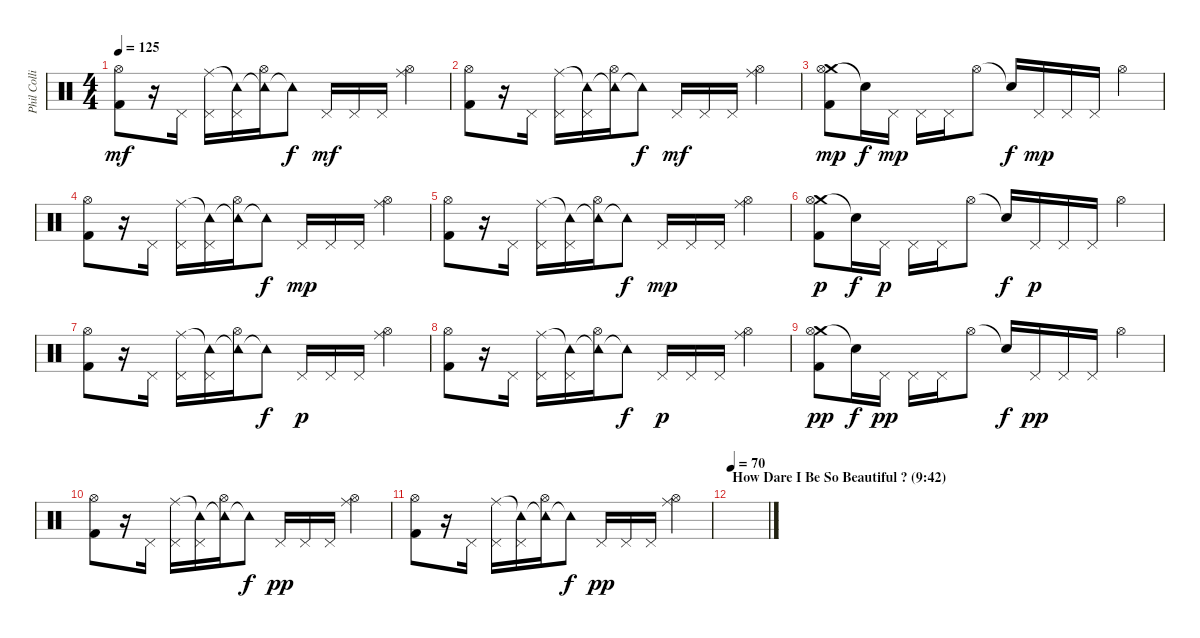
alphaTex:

\track ("Phil Collins (drums)" "Phil Colli") {instrument percussion}
\staff {score}
\articulation defaults
\ts (4 4)
\tempo 125
\clef neutral
\ks c
("Hi-Hat (open)" "Kick (hit) 2").8{dy mf} r.16 "Pedal Hi-Hat (hit)".16 ("Ride (middle)" "Pedal Hi-Hat (hit)").16 ("Tambourine (hit)"{t} "Pedal Hi-Hat (hit)").16 ("Tambourine (hit)"{t} "Hi-Hat (open)").16 "Tambourine (hit)"{t}.8{dy f} "Pedal Hi-Hat (hit)".16{dy mf} "Pedal Hi-Hat (hit)".16 "Pedal Hi-Hat (hit)".16 ("Ride (middle)" "Hi-Hat (open)").4 |
("Hi-Hat (open)" "Kick (hit) 2").8 r.16 "Pedal Hi-Hat (hit)".16 ("Ride (middle)" "Pedal Hi-Hat (hit)").16 ("Tambourine (hit)"{t} "Pedal Hi-Hat (hit)").16 ("Tambourine (hit)"{t} "Hi-Hat (open)").16 "Tambourine (hit)"{t}.8{dy f} "Pedal Hi-Hat (hit)".16{dy mf} "Pedal Hi-Hat (hit)".16 "Pedal Hi-Hat (hit)".16 ("Ride (middle)" "Hi-Hat (open)").4 |
("Crash medium (hit)" "Hi-Hat (open)" "Kick (hit) 2").8{dy mp} "Snare (hit)"{t}.16{dy f} "Pedal Hi-Hat (hit)".16{dy mp} "Pedal Hi-Hat (hit)".16 "Pedal Hi-Hat (hit)".16 "Hi-Hat (open)".8 "Snare (hit)"{t}.16{dy f} "Pedal Hi-Hat (hit)".16{dy mp} "Pedal Hi-Hat (hit)".16 "Pedal Hi-Hat (hit)".16 "Hi-Hat (open)".4 |
("Hi-Hat (open)" "Kick (hit) 2").8 r.16 "Pedal Hi-Hat (hit)".16 ("Ride (middle)" "Pedal Hi-Hat (hit)").16 ("Tambourine (hit)"{t} "Pedal Hi-Hat (hit)").16 ("Tambourine (hit)"{t} "Hi-Hat (open)").16 "Tambourine (hit)"{t}.8{dy f} "Pedal Hi-Hat (hit)".16{dy mp} "Pedal Hi-Hat (hit)".16 "Pedal Hi-Hat (hit)".16 ("Ride (middle)" "Hi-Hat (open)").4 |
("Hi-Hat (open)" "Kick (hit) 2").8 r.16 "Pedal Hi-Hat (hit)".16 ("Ride (middle)" "Pedal Hi-Hat (hit)").16 ("Tambourine (hit)"{t} "Pedal Hi-Hat (hit)").16 ("Tambourine (hit)"{t} "Hi-Hat (open)").16 "Tambourine (hit)"{t}.8{dy f} "Pedal Hi-Hat (hit)".16{dy mp} "Pedal Hi-Hat (hit)".16 "Pedal Hi-Hat (hit)".16 ("Ride (middle)" "Hi-Hat (open)").4 |
("Crash medium (hit)" "Hi-Hat (open)" "Kick (hit) 2").8{dy p} "Snare (hit)"{t}.16{dy f} "Pedal Hi-Hat (hit)".16{dy p} "Pedal Hi-Hat (hit)".16 "Pedal Hi-Hat (hit)".16 "Hi-Hat (open)".8 "Snare (hit)"{t}.16{dy f} "Pedal Hi-Hat (hit)".16{dy p} "Pedal Hi-Hat (hit)".16 "Pedal Hi-Hat (hit)".16 "Hi-Hat (open)".4 |
("Hi-Hat (open)" "Kick (hit) 2").8 r.16 "Pedal Hi-Hat (hit)".16 ("Ride (middle)" "Pedal Hi-Hat (hit)").16 ("Tambourine (hit)"{t} "Pedal Hi-Hat (hit)").16 ("Tambourine (hit)"{t} "Hi-Hat (open)").16 "Tambourine (hit)"{t}.8{dy f} "Pedal Hi-Hat (hit)".16{dy p} "Pedal Hi-Hat (hit)".16 "Pedal Hi-Hat (hit)".16 ("Ride (middle)" "Hi-Hat (open)").4 |
("Hi-Hat (open)" "Kick (hit) 2").8 r.16 "Pedal Hi-Hat (hit)".16 ("Ride (middle)" "Pedal Hi-Hat (hit)").16 ("Tambourine (hit)"{t} "Pedal Hi-Hat (hit)").16 ("Tambourine (hit)"{t} "Hi-Hat (open)").16 "Tambourine (hit)"{t}.8{dy f} "Pedal Hi-Hat (hit)".16{dy p} "Pedal Hi-Hat (hit)".16 "Pedal Hi-Hat (hit)".16 ("Ride (middle)" "Hi-Hat (open)").4 |
("Crash medium (hit)" "Hi-Hat (open)" "Kick (hit) 2").8{dy pp} "Snare (hit)"{t}.16{dy f} "Pedal Hi-Hat (hit)".16{dy pp} "Pedal Hi-Hat (hit)".16 "Pedal Hi-Hat (hit)".16 "Hi-Hat (open)".8 "Snare (hit)"{t}.16{dy f} "Pedal Hi-Hat (hit)".16{dy pp} "Pedal Hi-Hat (hit)".16 "Pedal Hi-Hat (hit)".16 "Hi-Hat (open)".4 |
("Hi-Hat (open)" "Kick (hit) 2").8 r.16 "Pedal Hi-Hat (hit)".16 ("Ride (middle)" "Pedal Hi-Hat (hit)").16 ("Tambourine (hit)"{t} "Pedal Hi-Hat (hit)").16 ("Tambourine (hit)"{t} "Hi-Hat (open)").16 "Tambourine (hit)"{t}.8{dy f} "Pedal Hi-Hat (hit)".16{dy pp} "Pedal Hi-Hat (hit)".16 "Pedal Hi-Hat (hit)".16 ("Ride (middle)" "Hi-Hat (open)").4 |
("Hi-Hat (open)" "Kick (hit) 2").8 r.16 "Pedal Hi-Hat (hit)".16 ("Ride (middle)" "Pedal Hi-Hat (hit)").16 ("Tambourine (hit)"{t} "Pedal Hi-Hat (hit)").16 ("Tambourine (hit)"{t} "Hi-Hat (open)").16 "Tambourine (hit)"{t}.8{dy f} "Pedal Hi-Hat (hit)".16{dy pp} "Pedal Hi-Hat (hit)".16 "Pedal Hi-Hat (hit)".16 ("Ride (middle)" "Hi-Hat (open)").4 |
\section ("" "How Dare I Be So Beautiful ? (9:42)")
\tempo 70
